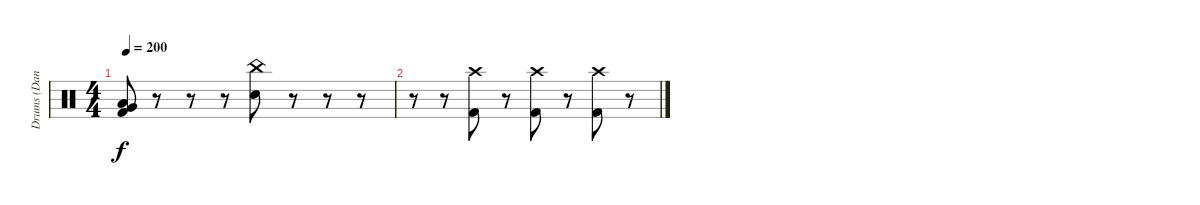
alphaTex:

\track ("Drums (Daniel)" "Drums (Dan") {instrument percussion}
\staff {score}
\articulation defaults
\ts (4 4)
\tempo 200
\clef neutral
\ks c
("Low Tom (hit)" "Very Low Tom (hit)" "Kick (hit) 2").8{dy f} r.8 r.8 r.8 ("China (hit)" "Electric Snare (hit)").8 r.8 r.8 r.8 |
r.8 r.8 ("Crash high (hit)" "Kick (hit) 2").8 r.8 ("Crash high (hit)" "Kick (hit) 2").8 r.8 ("Crash high (hit)" "Kick (hit) 2").8 r.8
